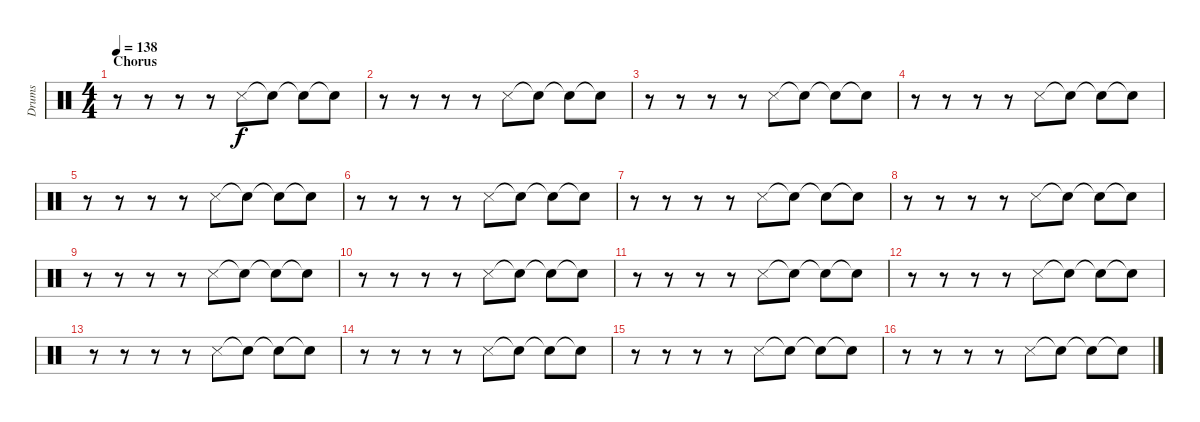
\track ("Drums" "Drums") {instrument percussion}
\staff {score}
\articulation defaults
\ts (4 4)
\section ("" "Chorus")
\tempo 138
\clef neutral
\ks c
r.8{dy f} r.8 r.8 r.8 "Snare (side stick) 3".8 "Snare (hit)"{t}.8 "Snare (hit)"{t}.8 "Snare (hit)"{t}.8 |
r.8 r.8 r.8 r.8 "Snare (side stick) 3".8 "Snare (hit)"{t}.8 "Snare (hit)"{t}.8 "Snare (hit)"{t}.8 |
r.8 r.8 r.8 r.8 "Snare (side stick) 3".8 "Snare (hit)"{t}.8 "Snare (hit)"{t}.8 "Snare (hit)"{t}.8 |
r.8 r.8 r.8 r.8 "Snare (side stick) 3".8 "Snare (hit)"{t}.8 "Snare (hit)"{t}.8 "Snare (hit)"{t}.8 |
r.8 r.8 r.8 r.8 "Snare (side stick) 3".8 "Snare (hit)"{t}.8 "Snare (hit)"{t}.8 "Snare (hit)"{t}.8 |
r.8 r.8 r.8 r.8 "Snare (side stick) 3".8 "Snare (hit)"{t}.8 "Snare (hit)"{t}.8 "Snare (hit)"{t}.8 |
r.8 r.8 r.8 r.8 "Snare (side stick) 3".8 "Snare (hit)"{t}.8 "Snare (hit)"{t}.8 "Snare (hit)"{t}.8 |
r.8 r.8 r.8 r.8 "Snare (side stick) 3".8 "Snare (hit)"{t}.8 "Snare (hit)"{t}.8 "Snare (hit)"{t}.8 |
r.8 r.8 r.8 r.8 "Snare (side stick) 3".8 "Snare (hit)"{t}.8 "Snare (hit)"{t}.8 "Snare (hit)"{t}.8 |
r.8 r.8 r.8 r.8 "Snare (side stick) 3".8 "Snare (hit)"{t}.8 "Snare (hit)"{t}.8 "Snare (hit)"{t}.8 |
r.8 r.8 r.8 r.8 "Snare (side stick) 3".8 "Snare (hit)"{t}.8 "Snare (hit)"{t}.8 "Snare (hit)"{t}.8 |
r.8 r.8 r.8 r.8 "Snare (side stick) 3".8 "Snare (hit)"{t}.8 "Snare (hit)"{t}.8 "Snare (hit)"{t}.8 |
r.8 r.8 r.8 r.8 "Snare (side stick) 3".8 "Snare (hit)"{t}.8 "Snare (hit)"{t}.8 "Snare (hit)"{t}.8 |
r.8 r.8 r.8 r.8 "Snare (side stick) 3".8 "Snare (hit)"{t}.8 "Snare (hit)"{t}.8 "Snare (hit)"{t}.8 |
r.8 r.8 r.8 r.8 "Snare (side stick) 3".8 "Snare (hit)"{t}.8 "Snare (hit)"{t}.8 "Snare (hit)"{t}.8 |
r.8 r.8 r.8 r.8 "Snare (side stick) 3".8 "Snare (hit)"{t}.8 "Snare (hit)"{t}.8 "Snare (hit)"{t}.8
